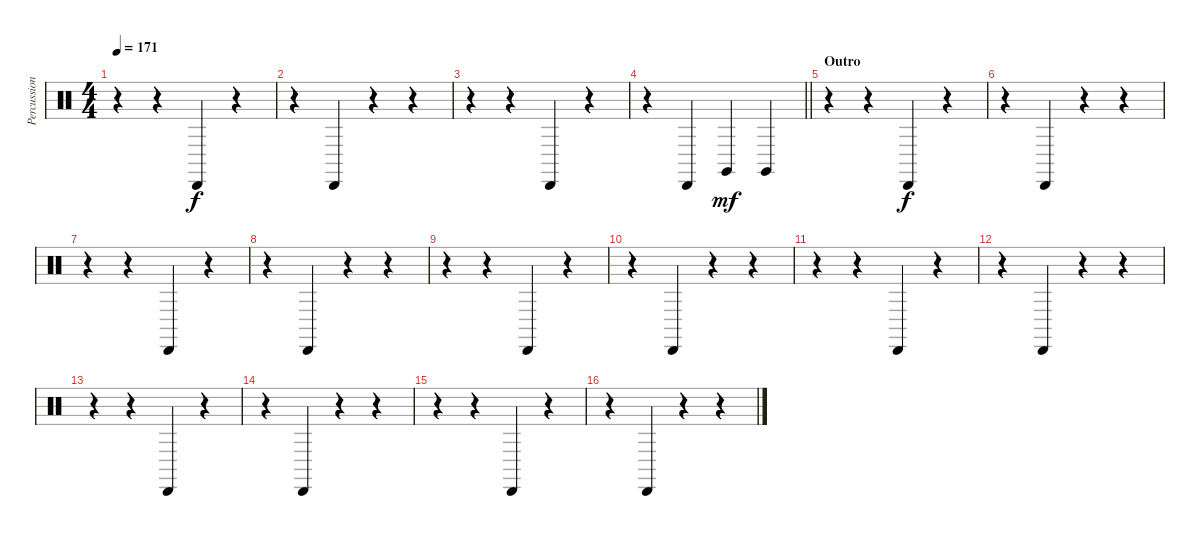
\track ("Percussion" "Percussion") {instrument percussion}
\staff {score}
\articulation defaults
\ts (4 4)
\tempo 171
\clef neutral
\ks c
r.4{dy mf} r.4 "Cabasa (hit)".4{dy f} r.4 |
r.4 "Cabasa (hit)".4 r.4 r.4 |
r.4 r.4 "Cabasa (hit)".4 r.4 |
\barLineRight lightlight
r.4 "Cabasa (hit)".4 "Claves (hit)".4{dy mf} "Claves (hit)".4 |
\section ("" "Outro")
r.4 r.4 "Cabasa (hit)".4{dy f} r.4 |
r.4 "Cabasa (hit)".4 r.4 r.4 |
r.4 r.4 "Cabasa (hit)".4 r.4 |
r.4 "Cabasa (hit)".4 r.4 r.4 |
r.4 r.4 "Cabasa (hit)".4 r.4 |
r.4 "Cabasa (hit)".4 r.4 r.4 |
r.4 r.4 "Cabasa (hit)".4 r.4 |
r.4 "Cabasa (hit)".4 r.4 r.4 |
r.4 r.4 "Cabasa (hit)".4 r.4 |
r.4 "Cabasa (hit)".4 r.4 r.4 |
r.4 r.4 "Cabasa (hit)".4 r.4 |
r.4 "Cabasa (hit)".4 r.4 r.4
